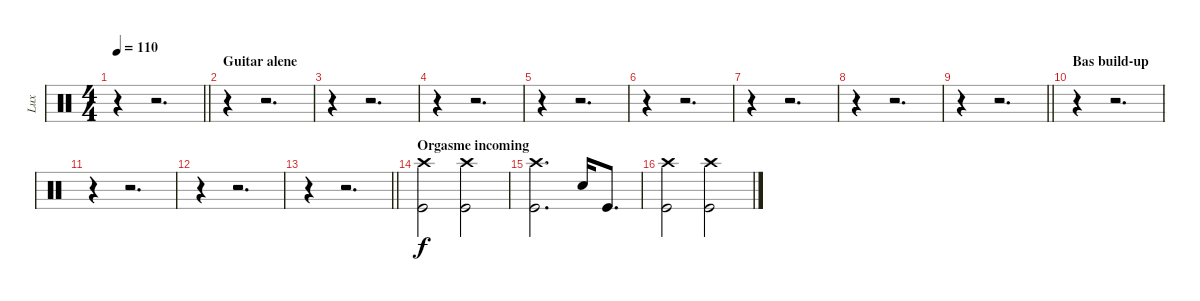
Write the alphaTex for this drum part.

\track ("Lux" "Lux") {instrument percussion}
\staff {score}
\articulation defaults
\ts (4 4)
\tempo 110
\clef neutral
\barLineRight lightlight
\ks c
r.4{dy f} r.2{d} |
\section ("" "Guitar alene")
r.4 r.2{d} |
r.4 r.2{d} |
r.4 r.2{d} |
r.4 r.2{d} |
r.4 r.2{d} |
r.4 r.2{d} |
r.4 r.2{d} |
\barLineRight lightlight
r.4 r.2{d} |
\section ("" "Bas build-up")
r.4 r.2{d} |
r.4 r.2{d} |
r.4 r.2{d} |
\barLineRight lightlight
r.4 r.2{d} |
\section ("" "Orgasme incoming")
("Crash high (hit)" "Kick (hit)").2 ("Crash high (hit)" "Kick (hit)").2 |
("Crash high (hit)" "Kick (hit)").2{d} "Snare (hit) 2".16 "Kick (hit)".8{d} |
("Crash high (hit)" "Kick (hit)").2 ("Crash high (hit)" "Kick (hit)").2
